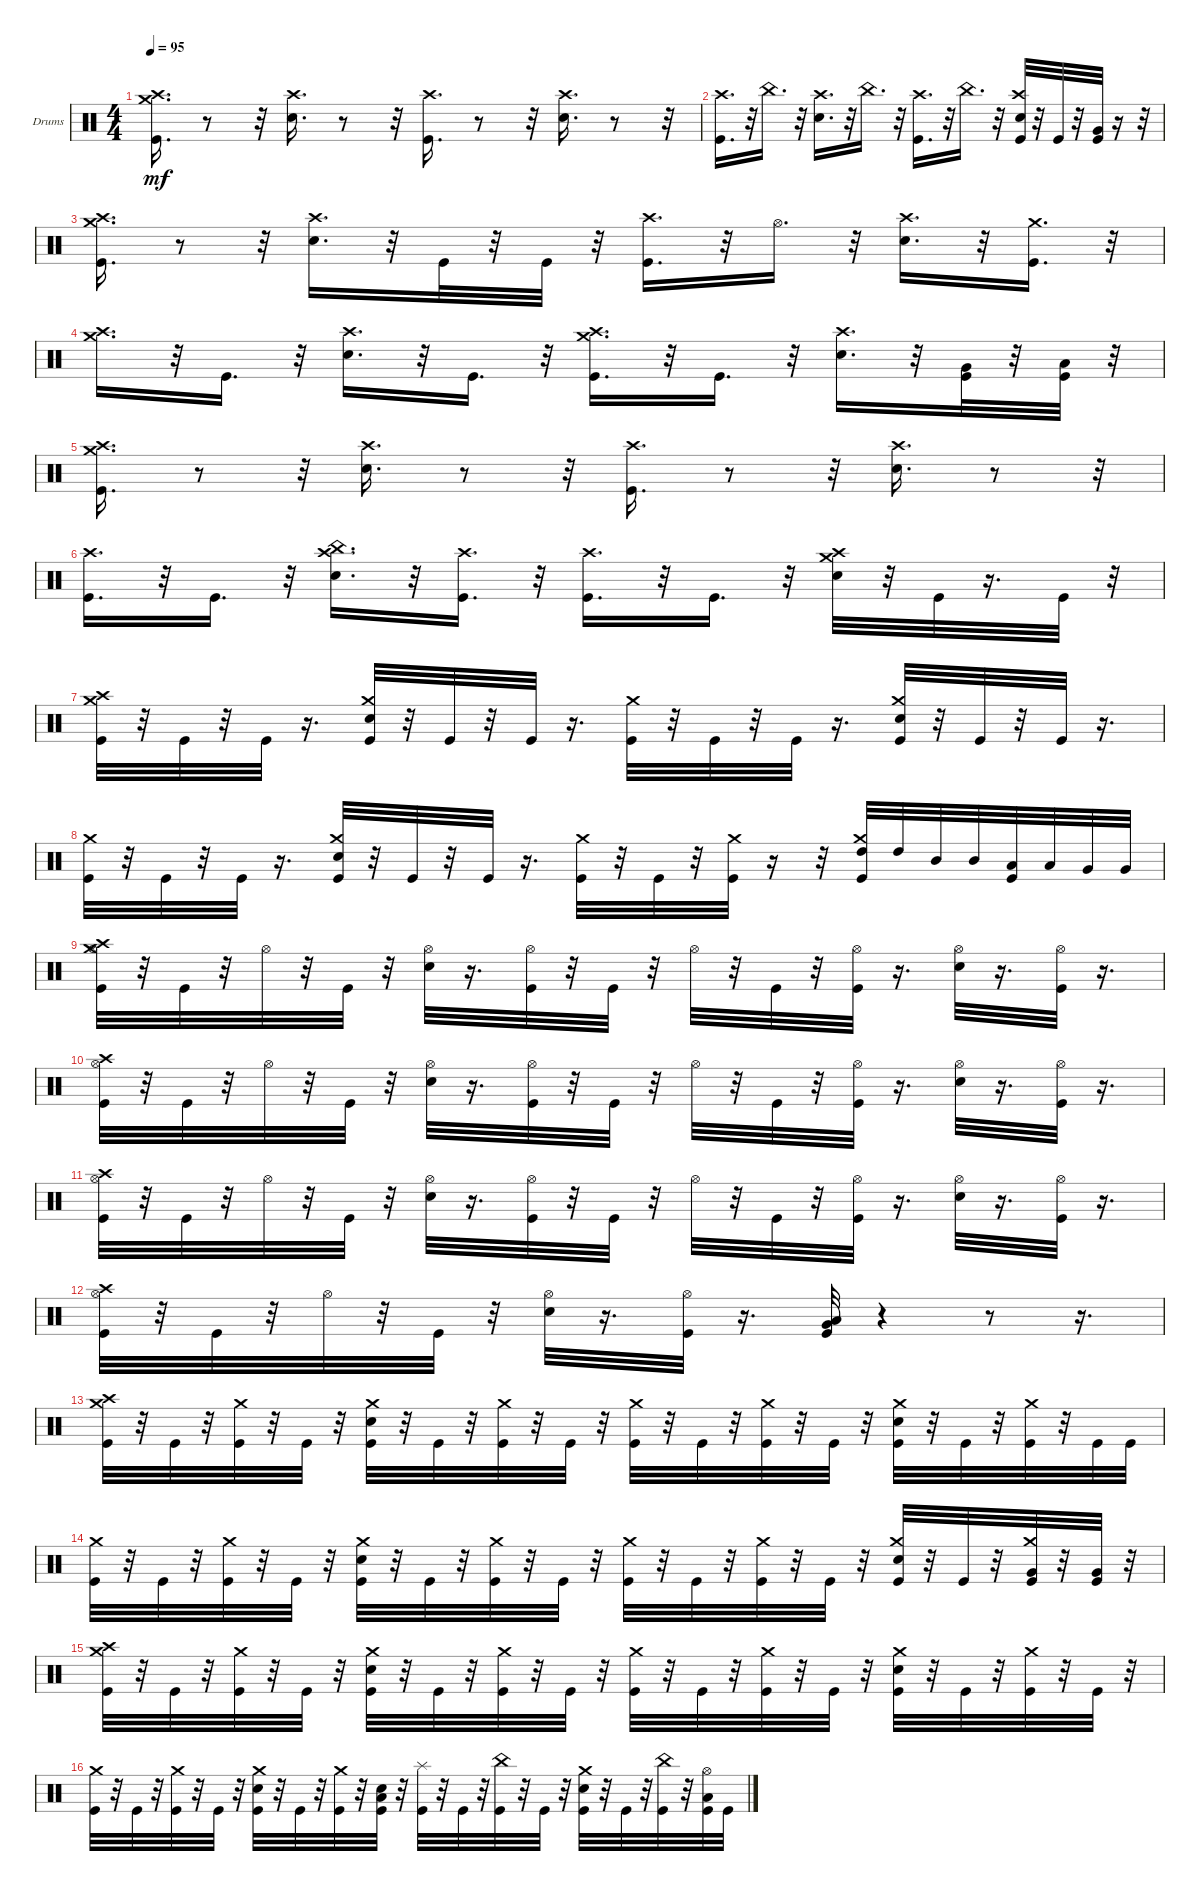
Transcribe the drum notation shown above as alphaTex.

\bracketExtendMode groupsimilarinstruments
\firstSystemTrackNameOrientation horizontal
\otherSystemsTrackNameOrientation horizontal
\track ("Drums" "Drums") {instrument percussion}
\staff {score}
\articulation defaults
\ts (4 4)
\tempo 95
\clef neutral
\ks c
("Kick (hit)" "Crash high (hit)" "Crash medium (hit)").16{d dy mf} r.8 r.32 ("Snare (hit) 2" "Crash high (hit)").16{d} r.8 r.32 ("Kick (hit)" "Crash high (hit)").16{d} r.8 r.32 ("Snare (hit) 2" "Crash high (hit)").16{d} r.8 r.32 |
("Kick (hit)" "Crash high (hit)").16{d} r.32 "China (hit)".16{d} r.32 ("Snare (hit) 2" "Crash high (hit)").16{d} r.32 "China (hit)".16{d} r.32 ("Kick (hit)" "Crash high (hit)").16{d} r.32 "China (hit)".16{d} r.32 ("Kick (hit)" "Snare (hit) 2" "Crash high (hit)").32 r.32 "Kick (hit)".32 r.32 ("Kick (hit)" "Very Low Tom (hit)").32 r.16 r.32 |
("Crash medium (hit)" "Crash high (hit)" "Kick (hit)").16{d} r.8 r.32 ("Snare (hit) 2" "Crash high (hit)").16{d} r.32 "Kick (hit)".32 r.32 "Kick (hit)".32 r.32 ("Kick (hit)" "Crash high (hit)").16{d} r.32 "Hi-Hat (open)".16{d} r.32 ("Snare (hit) 2" "Crash high (hit)").16{d} r.32 ("Crash medium (hit)" "Kick (hit)").16{d} r.32 |
("Crash high (hit)" "Crash medium (hit)").16{d} r.32 "Kick (hit)".16{d} r.32 ("Snare (hit) 2" "Crash high (hit)").16{d} r.32 "Kick (hit)".16{d} r.32 ("Kick (hit)" "Crash high (hit)" "Crash medium (hit)").16{d} r.32 "Kick (hit)".16{d} r.32 ("Snare (hit) 2" "Crash high (hit)").16{d} r.32 ("Kick (hit)" "Very Low Tom (hit)").32 r.32 ("Kick (hit)" "Low Tom (hit)").32 r.32 |
("Kick (hit)" "Crash medium (hit)" "Crash high (hit)").16{d} r.8 r.32 ("Snare (hit) 2" "Crash high (hit)").16{d} r.8 r.32 ("Kick (hit)" "Crash high (hit)").16{d} r.8 r.32 ("Snare (hit) 2" "Crash high (hit)").16{d} r.8 r.32 |
("Kick (hit)" "Crash high (hit)").16{d} r.32 "Kick (hit)".16{d} r.32 ("Snare (hit) 2" "Crash high (hit)" "China (hit)").16{d} r.32 ("Kick (hit)" "Crash high (hit)").16{d} r.32 ("Kick (hit)" "Crash high (hit)").16{d} r.32 "Kick (hit)".16{d} r.32 ("Crash medium (hit)" "Crash high (hit)" "Snare (hit) 2").32 r.32 "Kick (hit)".32 r.16{d} "Kick (hit)".32 r.32 |
("Kick (hit)" "Crash medium (hit)" "Crash high (hit)").32 r.32 "Kick (hit)".32 r.32 "Kick (hit)".32 r.16{d} ("Kick (hit)" "Snare (hit) 2" "Crash medium (hit)").32 r.32 "Kick (hit)".32 r.32 "Kick (hit)".32 r.16{d} ("Kick (hit)" "Crash medium (hit)").32 r.32 "Kick (hit)".32 r.32 "Kick (hit)".32 r.16{d} ("Kick (hit)" "Snare (hit) 2" "Crash medium (hit)").32 r.32 "Kick (hit)".32 r.32 "Kick (hit)".32 r.16{d} |
("Kick (hit)" "Crash medium (hit)").32 r.32 "Kick (hit)".32 r.32 "Kick (hit)".32 r.16{d} ("Kick (hit)" "Snare (hit) 2" "Crash medium (hit)").32 r.32 "Kick (hit)".32 r.32 "Kick (hit)".32 r.16{d} ("Kick (hit)" "Crash medium (hit)").32 r.32 "Kick (hit)".32 r.32 ("Kick (hit)" "Crash medium (hit)").32 r.16 r.32 ("Kick (hit)" "Crash medium (hit)" "High Tom (hit)").32 "High Tom (hit)".32 "Mid Tom (hit)".32 "Mid Tom (hit)".32 ("Kick (hit)" "Low Tom (hit)").32 "Low Tom (hit)".32 "Very Low Tom (hit)".32 "Very Low Tom (hit)".32 |
("Kick (hit)" "Hi-Hat (open)" "Crash medium (hit)" "Crash high (hit)").32 r.32 "Kick (hit)".32 r.32 "Hi-Hat (open)".32 r.32 "Kick (hit)".32 r.32 ("Snare (hit) 2" "Hi-Hat (open)").32 r.16{d} ("Kick (hit)" "Hi-Hat (open)").32 r.32 "Kick (hit)".32 r.32 "Hi-Hat (open)".32 r.32 "Kick (hit)".32 r.32 ("Kick (hit)" "Hi-Hat (open)").32 r.16{d} ("Snare (hit) 2" "Hi-Hat (open)").32 r.16{d} ("Kick (hit)" "Hi-Hat (open)").32 r.16{d} |
("Kick (hit)" "Hi-Hat (open)" "Crash high (hit)").32 r.32 "Kick (hit)".32 r.32 "Hi-Hat (open)".32 r.32 "Kick (hit)".32 r.32 ("Snare (hit) 2" "Hi-Hat (open)").32 r.16{d} ("Kick (hit)" "Hi-Hat (open)").32 r.32 "Kick (hit)".32 r.32 "Hi-Hat (open)".32 r.32 "Kick (hit)".32 r.32 ("Kick (hit)" "Hi-Hat (open)").32 r.16{d} ("Snare (hit) 2" "Hi-Hat (open)").32 r.16{d} ("Kick (hit)" "Hi-Hat (open)").32 r.16{d} |
("Kick (hit)" "Hi-Hat (open)" "Crash high (hit)").32 r.32 "Kick (hit)".32 r.32 "Hi-Hat (open)".32 r.32 "Kick (hit)".32 r.32 ("Snare (hit) 2" "Hi-Hat (open)").32 r.16{d} ("Kick (hit)" "Hi-Hat (open)").32 r.32 "Kick (hit)".32 r.32 "Hi-Hat (open)".32 r.32 "Kick (hit)".32 r.32 ("Kick (hit)" "Hi-Hat (open)").32 r.16{d} ("Snare (hit) 2" "Hi-Hat (open)").32 r.16{d} ("Kick (hit)" "Hi-Hat (open)").32 r.16{d} |
("Kick (hit)" "Hi-Hat (open)" "Crash high (hit)").32 r.32 "Kick (hit)".32 r.32 "Hi-Hat (open)".32 r.32 "Kick (hit)".32 r.32 ("Snare (hit) 2" "Hi-Hat (open)").32 r.16{d} ("Kick (hit)" "Hi-Hat (open)").32 r.16{d} ("Kick (hit)" "Low Tom (hit)" "Very Low Tom (hit)").32 r.4 r.8 r.16{d} |
("Crash medium (hit)" "Crash high (hit)" "Kick (hit)").32 r.32 "Kick (hit)".32 r.32 ("Crash medium (hit)" "Kick (hit)").32 r.32 "Kick (hit)".32 r.32 ("Crash medium (hit)" "Snare (hit) 2" "Kick (hit)").32 r.32 "Kick (hit)".32 r.32 ("Crash medium (hit)" "Kick (hit)").32 r.32 "Kick (hit)".32 r.32 ("Crash medium (hit)" "Kick (hit)").32 r.32 "Kick (hit)".32 r.32 ("Crash medium (hit)" "Kick (hit)").32 r.32 "Kick (hit)".32 r.32 ("Crash medium (hit)" "Snare (hit) 2" "Kick (hit)").32 r.32 "Kick (hit)".32 r.32 ("Crash medium (hit)" "Kick (hit)").32 r.32 "Kick (hit)".32 "Kick (hit)".32 |
("Crash medium (hit)" "Kick (hit)").32 r.32 "Kick (hit)".32 r.32 ("Crash medium (hit)" "Kick (hit)").32 r.32 "Kick (hit)".32 r.32 ("Crash medium (hit)" "Snare (hit) 2" "Kick (hit)").32 r.32 "Kick (hit)".32 r.32 ("Crash medium (hit)" "Kick (hit)").32 r.32 "Kick (hit)".32 r.32 ("Crash medium (hit)" "Kick (hit)").32 r.32 "Kick (hit)".32 r.32 ("Crash medium (hit)" "Kick (hit)").32 r.32 "Kick (hit)".32 r.32 ("Crash medium (hit)" "Snare (hit) 2" "Kick (hit)").32 r.32 "Kick (hit)".32 r.32 ("Crash medium (hit)" "Kick (hit)" "Very Low Tom (hit)").32 r.32 ("Kick (hit)" "Very Low Tom (hit)").32 r.32 |
("Crash medium (hit)" "Crash high (hit)" "Kick (hit)").32 r.32 "Kick (hit)".32 r.32 ("Crash medium (hit)" "Kick (hit)").32 r.32 "Kick (hit)".32 r.32 ("Crash medium (hit)" "Snare (hit) 2" "Kick (hit)").32 r.32 "Kick (hit)".32 r.32 ("Crash medium (hit)" "Kick (hit)").32 r.32 "Kick (hit)".32 r.32 ("Crash medium (hit)" "Kick (hit)").32 r.32 "Kick (hit)".32 r.32 ("Crash medium (hit)" "Kick (hit)").32 r.32 "Kick (hit)".32 r.32 ("Crash medium (hit)" "Snare (hit) 2" "Kick (hit)").32 r.32 "Kick (hit)".32 r.32 ("Crash medium (hit)" "Kick (hit)").32 r.32 "Kick (hit)".32 r.32 |
("Crash medium (hit)" "Kick (hit)").32 r.32 "Kick (hit)".32 r.32 ("Crash medium (hit)" "Kick (hit)").32 r.32 "Kick (hit)".32 r.32 ("Crash medium (hit)" "Snare (hit) 2" "Kick (hit)").32 r.32 "Kick (hit)".32 r.32 ("Crash medium (hit)" "Kick (hit)").32 r.32 ("Kick (hit)" "Snare (hit) 2" "Low Tom (hit)").32 r.32 ("Kick (hit)" "Splash (hit)").32 r.32 "Kick (hit)".32 r.32 ("Kick (hit)" "China (hit)").32 r.32 "Kick (hit)".32 r.32 ("Kick (hit)" "Snare (hit) 2" "Crash medium (hit)").32 r.32 "Kick (hit)".32 r.32 ("China (hit)" "Kick (hit)").32 r.32 ("Kick (hit)" "Low Tom (hit)" "Hi-Hat (open)").32 "Kick (hit)".32
